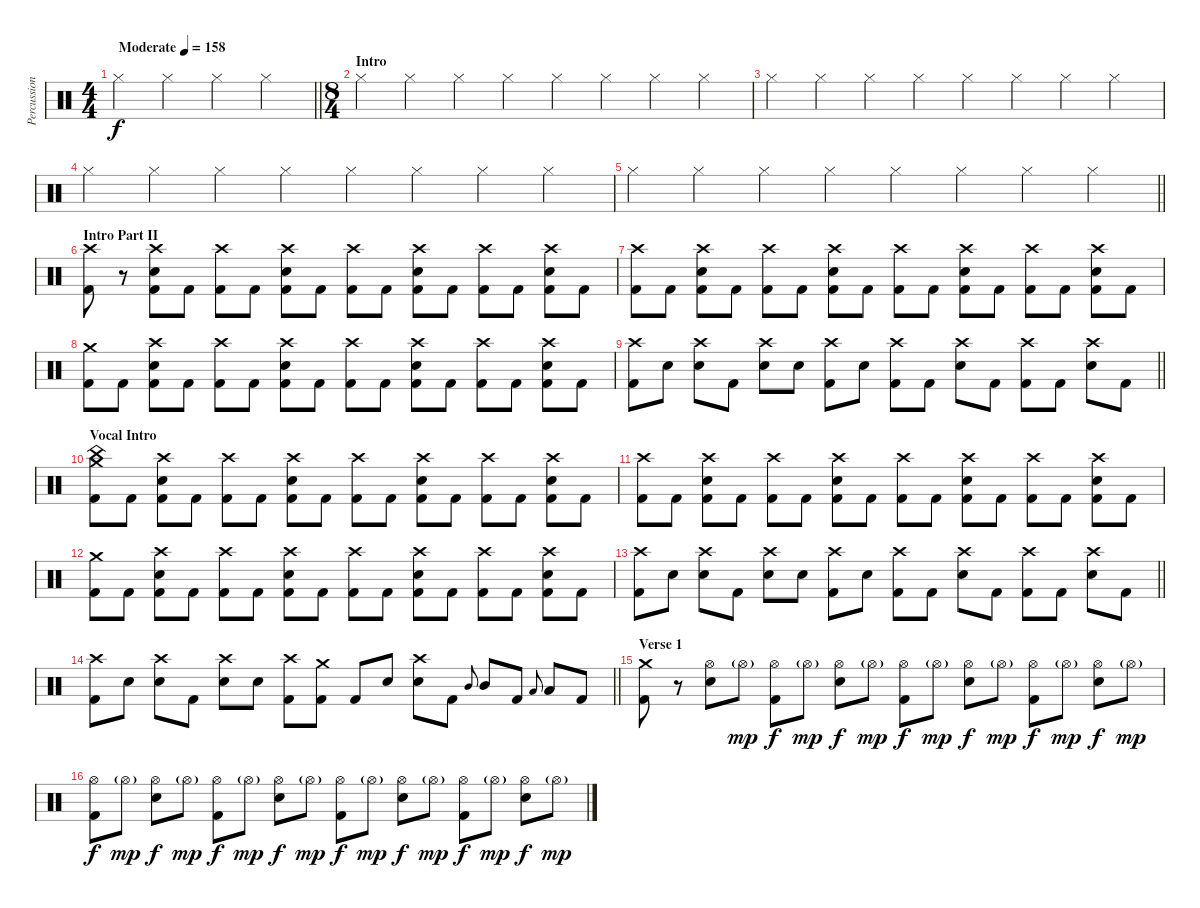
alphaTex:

\track ("Percussion" "Percussion") {instrument percussion}
\staff {score}
\articulation defaults
\ts (4 4)
\tempo (158 "Moderate")
\clef neutral
\barLineRight lightlight
\ks c "Hi-Hat (closed)".4{dy f} "Hi-Hat (closed)".4 "Hi-Hat (closed)".4 "Hi-Hat (closed)".4
|
\ts (8 4)
\section ("" "Intro")
"Hi-Hat (closed)".4 "Hi-Hat (closed)".4 "Hi-Hat (closed)".4 "Hi-Hat (closed)".4 "Hi-Hat (closed)".4 "Hi-Hat (closed)".4 "Hi-Hat (closed)".4 "Hi-Hat (closed)".4 |
"Hi-Hat (closed)".4 "Hi-Hat (closed)".4 "Hi-Hat (closed)".4 "Hi-Hat (closed)".4 "Hi-Hat (closed)".4 "Hi-Hat (closed)".4 "Hi-Hat (closed)".4 "Hi-Hat (closed)".4 |
"Hi-Hat (closed)".4 "Hi-Hat (closed)".4 "Hi-Hat (closed)".4 "Hi-Hat (closed)".4 "Hi-Hat (closed)".4 "Hi-Hat (closed)".4 "Hi-Hat (closed)".4 "Hi-Hat (closed)".4 |
\barLineRight lightlight "Hi-Hat (closed)".4 "Hi-Hat (closed)".4 "Hi-Hat (closed)".4 "Hi-Hat (closed)".4 "Hi-Hat (closed)".4 "Hi-Hat (closed)".4 "Hi-Hat (closed)".4 "Hi-Hat (closed)".4
|
\section ("" "Intro Part II")
("Crash high (hit)" "Kick (hit) 2").8 r.8 ("Crash high (hit)" "Electric Snare (hit)" "Kick (hit) 2").8 "Kick (hit) 2".8 ("Crash high (hit)" "Kick (hit) 2").8 "Kick (hit) 2".8 ("Crash high (hit)" "Electric Snare (hit)" "Kick (hit) 2").8 "Kick (hit) 2".8 ("Crash high (hit)" "Kick (hit) 2").8 "Kick (hit) 2".8 ("Crash high (hit)" "Electric Snare (hit)" "Kick (hit) 2").8 "Kick (hit) 2".8 ("Crash high (hit)" "Kick (hit) 2").8 "Kick (hit) 2".8 ("Crash high (hit)" "Electric Snare (hit)" "Kick (hit) 2").8 "Kick (hit) 2".8 |
("Crash high (hit)" "Kick (hit) 2").8 "Kick (hit) 2".8 ("Crash high (hit)" "Electric Snare (hit)" "Kick (hit) 2").8 "Kick (hit) 2".8 ("Crash high (hit)" "Kick (hit) 2").8 "Kick (hit) 2".8 ("Crash high (hit)" "Electric Snare (hit)" "Kick (hit) 2").8 "Kick (hit) 2".8 ("Crash high (hit)" "Kick (hit) 2").8 "Kick (hit) 2".8 ("Crash high (hit)" "Electric Snare (hit)" "Kick (hit) 2").8 "Kick (hit) 2".8 ("Crash high (hit)" "Kick (hit) 2").8 "Kick (hit) 2".8 ("Crash high (hit)" "Electric Snare (hit)" "Kick (hit) 2").8 "Kick (hit) 2".8 |
("Crash medium (hit)" "Kick (hit) 2").8 "Kick (hit) 2".8 ("Crash high (hit)" "Electric Snare (hit)" "Kick (hit) 2").8 "Kick (hit) 2".8 ("Crash high (hit)" "Kick (hit) 2").8 "Kick (hit) 2".8 ("Crash high (hit)" "Electric Snare (hit)" "Kick (hit) 2").8 "Kick (hit) 2".8 ("Crash high (hit)" "Kick (hit) 2").8 "Kick (hit) 2".8 ("Crash high (hit)" "Electric Snare (hit)" "Kick (hit) 2").8 "Kick (hit) 2".8 ("Crash high (hit)" "Kick (hit) 2").8 "Kick (hit) 2".8 ("Crash high (hit)" "Electric Snare (hit)" "Kick (hit) 2").8 "Kick (hit) 2".8 |
\barLineRight lightlight
("Crash high (hit)" "Kick (hit) 2").8 "Electric Snare (hit)".8 ("Crash high (hit)" "Electric Snare (hit)").8 "Kick (hit) 2".8 ("Crash high (hit)" "Electric Snare (hit)").8 "Electric Snare (hit)".8 ("Crash high (hit)" "Kick (hit) 2").8 "Electric Snare (hit)".8 ("Crash high (hit)" "Kick (hit) 2").8 "Kick (hit) 2".8 ("Crash high (hit)" "Electric Snare (hit)").8 "Kick (hit) 2".8 ("Crash high (hit)" "Kick (hit) 2").8 "Kick (hit) 2".8 ("Crash high (hit)" "Electric Snare (hit)").8 "Kick (hit) 2".8 |
\section ("" "Vocal Intro")
("Crash medium (hit)" "China (hit)" "Kick (hit) 2").8 "Kick (hit) 2".8 ("Crash high (hit)" "Electric Snare (hit)" "Kick (hit) 2").8 "Kick (hit) 2".8 ("Crash high (hit)" "Kick (hit) 2").8 "Kick (hit) 2".8 ("Crash high (hit)" "Electric Snare (hit)" "Kick (hit) 2").8 "Kick (hit) 2".8 ("Crash high (hit)" "Kick (hit) 2").8 "Kick (hit) 2".8 ("Crash high (hit)" "Electric Snare (hit)" "Kick (hit) 2").8 "Kick (hit) 2".8 ("Crash high (hit)" "Kick (hit) 2").8 "Kick (hit) 2".8 ("Crash high (hit)" "Electric Snare (hit)" "Kick (hit) 2").8 "Kick (hit) 2".8 |
("Crash high (hit)" "Kick (hit) 2").8 "Kick (hit) 2".8 ("Crash high (hit)" "Electric Snare (hit)" "Kick (hit) 2").8 "Kick (hit) 2".8 ("Crash high (hit)" "Kick (hit) 2").8 "Kick (hit) 2".8 ("Crash high (hit)" "Electric Snare (hit)" "Kick (hit) 2").8 "Kick (hit) 2".8 ("Crash high (hit)" "Kick (hit) 2").8 "Kick (hit) 2".8 ("Crash high (hit)" "Electric Snare (hit)" "Kick (hit) 2").8 "Kick (hit) 2".8 ("Crash high (hit)" "Kick (hit) 2").8 "Kick (hit) 2".8 ("Crash high (hit)" "Electric Snare (hit)" "Kick (hit) 2").8 "Kick (hit) 2".8 |
("Crash medium (hit)" "Kick (hit) 2").8 "Kick (hit) 2".8 ("Crash high (hit)" "Electric Snare (hit)" "Kick (hit) 2").8 "Kick (hit) 2".8 ("Crash high (hit)" "Kick (hit) 2").8 "Kick (hit) 2".8 ("Crash high (hit)" "Electric Snare (hit)" "Kick (hit) 2").8 "Kick (hit) 2".8 ("Crash high (hit)" "Kick (hit) 2").8 "Kick (hit) 2".8 ("Crash high (hit)" "Electric Snare (hit)" "Kick (hit) 2").8 "Kick (hit) 2".8 ("Crash high (hit)" "Kick (hit) 2").8 "Kick (hit) 2".8 ("Crash high (hit)" "Electric Snare (hit)" "Kick (hit) 2").8 "Kick (hit) 2".8 |
\barLineRight lightlight
("Crash high (hit)" "Kick (hit) 2").8 "Electric Snare (hit)".8 ("Crash high (hit)" "Electric Snare (hit)").8 "Kick (hit) 2".8 ("Crash high (hit)" "Electric Snare (hit)").8 "Electric Snare (hit)".8 ("Crash high (hit)" "Kick (hit) 2").8 "Electric Snare (hit)".8 ("Crash high (hit)" "Kick (hit) 2").8 "Kick (hit) 2".8 ("Crash high (hit)" "Electric Snare (hit)").8 "Kick (hit) 2".8 ("Crash high (hit)" "Kick (hit) 2").8 "Kick (hit) 2".8 ("Crash high (hit)" "Electric Snare (hit)").8 "Kick (hit) 2".8 |
\barLineRight lightlight
("Crash high (hit)" "Kick (hit) 2").8 "Electric Snare (hit)".8 ("Crash high (hit)" "Electric Snare (hit)").8 "Kick (hit) 2".8 ("Crash high (hit)" "Electric Snare (hit)").8 "Electric Snare (hit)".8 ("Crash high (hit)" "Kick (hit) 2").8 ("Crash medium (hit)" "Kick (hit) 2").8 "Kick (hit) 2".8 "Electric Snare (hit)".8 ("Crash high (hit)" "Electric Snare (hit)").8 "Kick (hit) 2".8 "Mid Tom (hit)".8{gr onbeat} "Mid Tom (hit)".8 "Kick (hit) 2".8 "Low Tom (hit)".8{gr onbeat} "Low Tom (hit)".8 "Kick (hit) 2".8 |
\section ("" "Verse 1")
("Crash medium (hit)" "Kick (hit) 2").8 r.8 ("Hi-Hat (open)" "Electric Snare (hit)").8 "Hi-Hat (open)"{g}.8{dy mp} ("Hi-Hat (open)" "Kick (hit) 2").8{dy f} "Hi-Hat (open)"{g}.8{dy mp} ("Hi-Hat (open)" "Electric Snare (hit)").8{dy f} "Hi-Hat (open)"{g}.8{dy mp} ("Hi-Hat (open)" "Kick (hit) 2").8{dy f} "Hi-Hat (open)"{g}.8{dy mp} ("Hi-Hat (open)" "Electric Snare (hit)").8{dy f} "Hi-Hat (open)"{g}.8{dy mp} ("Hi-Hat (open)" "Kick (hit) 2").8{dy f} "Hi-Hat (open)"{g}.8{dy mp} ("Hi-Hat (open)" "Electric Snare (hit)").8{dy f} "Hi-Hat (open)"{g}.8{dy mp} |
("Hi-Hat (open)" "Kick (hit) 2").8{dy f} "Hi-Hat (open)"{g}.8{dy mp} ("Hi-Hat (open)" "Electric Snare (hit)").8{dy f} "Hi-Hat (open)"{g}.8{dy mp} ("Hi-Hat (open)" "Kick (hit) 2").8{dy f} "Hi-Hat (open)"{g}.8{dy mp} ("Hi-Hat (open)" "Electric Snare (hit)").8{dy f} "Hi-Hat (open)"{g}.8{dy mp} ("Hi-Hat (open)" "Kick (hit) 2").8{dy f} "Hi-Hat (open)"{g}.8{dy mp} ("Hi-Hat (open)" "Electric Snare (hit)").8{dy f} "Hi-Hat (open)"{g}.8{dy mp} ("Hi-Hat (open)" "Kick (hit) 2").8{dy f} "Hi-Hat (open)"{g}.8{dy mp} ("Hi-Hat (open)" "Electric Snare (hit)").8{dy f} "Hi-Hat (open)"{g}.8{dy mp}
